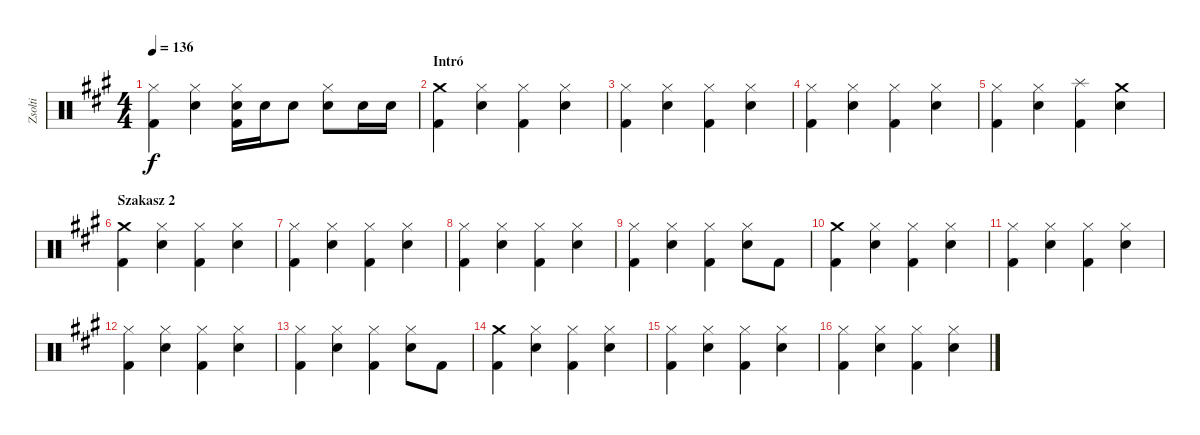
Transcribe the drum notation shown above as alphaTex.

\track ("Zsolti" "Zsolti") {instrument percussion}
\staff {score}
\articulation defaults
\ts (4 4)
\tempo 136
\clef neutral
\ks f#minor
("Hi-Hat (closed)" "Kick (hit) 2").4{dy f} ("Hi-Hat (closed)" "Snare (hit) 2").4 ("Hi-Hat (closed)" "Snare (hit) 2" "Kick (hit) 2").16 "Snare (hit) 2".16 "Snare (hit) 2".8 ("Hi-Hat (closed)" "Snare (hit) 2").8 "Snare (hit) 2".16 "Snare (hit) 2".16 |
\section ("" "Intró")
("Crash medium (hit)" "Kick (hit) 2").4 ("Hi-Hat (closed)" "Snare (hit) 2").4 ("Hi-Hat (closed)" "Kick (hit) 2").4 ("Hi-Hat (closed)" "Snare (hit) 2").4 |
("Hi-Hat (closed)" "Kick (hit) 2").4 ("Hi-Hat (closed)" "Snare (hit) 2").4 ("Hi-Hat (closed)" "Kick (hit) 2").4 ("Hi-Hat (closed)" "Snare (hit) 2").4 |
("Hi-Hat (closed)" "Kick (hit) 2").4 ("Hi-Hat (closed)" "Snare (hit) 2").4 ("Hi-Hat (closed)" "Kick (hit) 2").4 ("Hi-Hat (closed)" "Snare (hit) 2").4 |
("Hi-Hat (closed)" "Kick (hit) 2").4 ("Hi-Hat (closed)" "Snare (hit) 2").4 ("Splash (hit)" "Kick (hit) 2").4 ("Crash medium (hit)" "Snare (hit) 2").4 |
\section ("" "Szakasz 2")
("Crash medium (hit)" "Kick (hit) 2").4 ("Hi-Hat (closed)" "Snare (hit) 2").4 ("Hi-Hat (closed)" "Kick (hit) 2").4 ("Hi-Hat (closed)" "Snare (hit) 2").4 |
("Hi-Hat (closed)" "Kick (hit) 2").4 ("Hi-Hat (closed)" "Snare (hit) 2").4 ("Hi-Hat (closed)" "Kick (hit) 2").4 ("Hi-Hat (closed)" "Snare (hit) 2").4 |
("Hi-Hat (closed)" "Kick (hit) 2").4 ("Hi-Hat (closed)" "Snare (hit) 2").4 ("Hi-Hat (closed)" "Kick (hit) 2").4 ("Hi-Hat (closed)" "Snare (hit) 2").4 |
("Hi-Hat (closed)" "Kick (hit) 2").4 ("Hi-Hat (closed)" "Snare (hit) 2").4 ("Hi-Hat (closed)" "Kick (hit) 2").4 ("Hi-Hat (closed)" "Snare (hit) 2").8 "Kick (hit) 2".8 |
("Crash medium (hit)" "Kick (hit) 2").4 ("Hi-Hat (closed)" "Snare (hit) 2").4 ("Hi-Hat (closed)" "Kick (hit) 2").4 ("Hi-Hat (closed)" "Snare (hit) 2").4 |
("Hi-Hat (closed)" "Kick (hit) 2").4 ("Hi-Hat (closed)" "Snare (hit) 2").4 ("Hi-Hat (closed)" "Kick (hit) 2").4 ("Hi-Hat (closed)" "Snare (hit) 2").4 |
("Hi-Hat (closed)" "Kick (hit) 2").4 ("Hi-Hat (closed)" "Snare (hit) 2").4 ("Hi-Hat (closed)" "Kick (hit) 2").4 ("Hi-Hat (closed)" "Snare (hit) 2").4 |
("Hi-Hat (closed)" "Kick (hit) 2").4 ("Hi-Hat (closed)" "Snare (hit) 2").4 ("Hi-Hat (closed)" "Kick (hit) 2").4 ("Hi-Hat (closed)" "Snare (hit) 2").8 "Kick (hit) 2".8 |
("Crash medium (hit)" "Kick (hit) 2").4 ("Hi-Hat (closed)" "Snare (hit) 2").4 ("Hi-Hat (closed)" "Kick (hit) 2").4 ("Hi-Hat (closed)" "Snare (hit) 2").4 |
("Hi-Hat (closed)" "Kick (hit) 2").4 ("Hi-Hat (closed)" "Snare (hit) 2").4 ("Hi-Hat (closed)" "Kick (hit) 2").4 ("Hi-Hat (closed)" "Snare (hit) 2").4 |
("Hi-Hat (closed)" "Kick (hit) 2").4 ("Hi-Hat (closed)" "Snare (hit) 2").4 ("Hi-Hat (closed)" "Kick (hit) 2").4 ("Hi-Hat (closed)" "Snare (hit) 2").4
